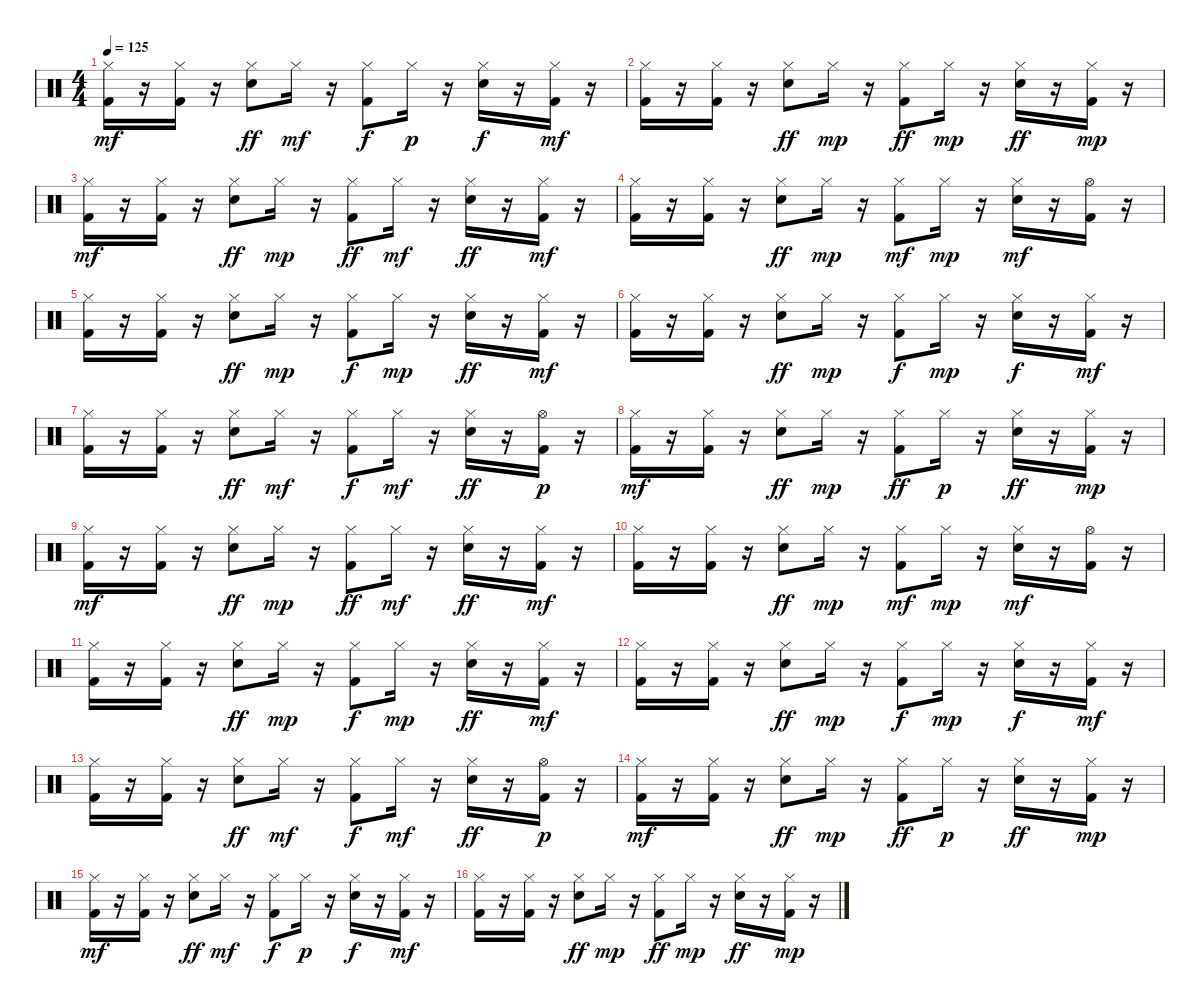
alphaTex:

\track "" {instrument percussion}
\staff {score}
\articulation defaults
\ts (4 4)
\tempo 125
\clef neutral
\ks c
("Hi-Hat (closed)" "Kick (hit) 2").16{dy mf} r.16 ("Hi-Hat (closed)" "Kick (hit) 2").16 r.16 ("Snare (hit) 2" "Hi-Hat (closed)").8{dy ff} "Hi-Hat (closed)".16{dy mf} r.16 ("Kick (hit) 2" "Hi-Hat (closed)").8{dy f} "Hi-Hat (closed)".16{dy p} r.16 ("Snare (hit) 2" "Hi-Hat (closed)").16{dy f} r.16 ("Hi-Hat (closed)" "Kick (hit) 2").16{dy mf} r.16 |
("Hi-Hat (closed)" "Kick (hit) 2").16 r.16 ("Hi-Hat (closed)" "Kick (hit) 2").16 r.16 ("Snare (hit) 2" "Hi-Hat (closed)").8{dy ff} "Hi-Hat (closed)".16{dy mp} r.16 ("Kick (hit) 2" "Hi-Hat (closed)").8{dy ff} "Hi-Hat (closed)".16{dy mp} r.16 ("Snare (hit) 2" "Hi-Hat (closed)").16{dy ff} r.16 ("Hi-Hat (closed)" "Kick (hit) 2").16{dy mp} r.16 |
("Hi-Hat (closed)" "Kick (hit) 2").16{dy mf} r.16 ("Hi-Hat (closed)" "Kick (hit) 2").16 r.16 ("Hi-Hat (closed)" "Snare (hit) 2").8{dy ff} "Hi-Hat (closed)".16{dy mp} r.16 ("Hi-Hat (closed)" "Kick (hit) 2").8{dy ff} "Hi-Hat (closed)".16{dy mf} r.16 ("Snare (hit) 2" "Hi-Hat (closed)").16{dy ff} r.16 ("Kick (hit) 2" "Hi-Hat (closed)").16{dy mf} r.16 |
("Hi-Hat (closed)" "Kick (hit) 2").16 r.16 ("Kick (hit) 2" "Hi-Hat (closed)").16 r.16 ("Hi-Hat (closed)" "Snare (hit) 2").8{dy ff} "Hi-Hat (closed)".16{dy mp} r.16 ("Kick (hit) 2" "Hi-Hat (closed)").8{dy mf} "Hi-Hat (closed)".16{dy mp} r.16 ("Snare (hit) 2" "Hi-Hat (closed)").16{dy mf} r.16 ("Hi-Hat (open)" "Kick (hit) 2").16 r.16 |
("Hi-Hat (closed)" "Kick (hit) 2").16 r.16 ("Hi-Hat (closed)" "Kick (hit) 2").16 r.16 ("Snare (hit) 2" "Hi-Hat (closed)").8{dy ff} "Hi-Hat (closed)".16{dy mp} r.16 ("Hi-Hat (closed)" "Kick (hit) 2").8{dy f} "Hi-Hat (closed)".16{dy mp} r.16 ("Hi-Hat (closed)" "Snare (hit) 2").16{dy ff} r.16 ("Hi-Hat (closed)" "Kick (hit) 2").16{dy mf} r.16 |
("Hi-Hat (closed)" "Kick (hit) 2").16 r.16 ("Hi-Hat (closed)" "Kick (hit) 2").16 r.16 ("Hi-Hat (closed)" "Snare (hit) 2").8{dy ff} "Hi-Hat (closed)".16{dy mp} r.16 ("Hi-Hat (closed)" "Kick (hit) 2").8{dy f} "Hi-Hat (closed)".16{dy mp} r.16 ("Snare (hit) 2" "Hi-Hat (closed)").16{dy f} r.16 ("Kick (hit) 2" "Hi-Hat (closed)").16{dy mf} r.16 |
("Hi-Hat (closed)" "Kick (hit) 2").16 r.16 ("Kick (hit) 2" "Hi-Hat (closed)").16 r.16 ("Snare (hit) 2" "Hi-Hat (closed)").8{dy ff} "Hi-Hat (closed)".16{dy mf} r.16 ("Kick (hit) 2" "Hi-Hat (closed)").8{dy f} "Hi-Hat (closed)".16{dy mf} r.16 ("Hi-Hat (closed)" "Snare (hit) 2").16{dy ff} r.16 ("Kick (hit) 2" "Hi-Hat (open)").16{dy p} r.16 |
("Hi-Hat (closed)" "Kick (hit) 2").16{dy mf} r.16 ("Kick (hit) 2" "Hi-Hat (closed)").16 r.16 ("Hi-Hat (closed)" "Snare (hit) 2").8{dy ff} "Hi-Hat (closed)".16{dy mp} r.16 ("Kick (hit) 2" "Hi-Hat (closed)").8{dy ff} "Hi-Hat (closed)".16{dy p} r.16 ("Hi-Hat (closed)" "Snare (hit) 2").16{dy ff} r.16 ("Hi-Hat (closed)" "Kick (hit) 2").16{dy mp} r.16 |
("Hi-Hat (closed)" "Kick (hit) 2").16{dy mf} r.16 ("Hi-Hat (closed)" "Kick (hit) 2").16 r.16 ("Hi-Hat (closed)" "Snare (hit) 2").8{dy ff} "Hi-Hat (closed)".16{dy mp} r.16 ("Hi-Hat (closed)" "Kick (hit) 2").8{dy ff} "Hi-Hat (closed)".16{dy mf} r.16 ("Snare (hit) 2" "Hi-Hat (closed)").16{dy ff} r.16 ("Kick (hit) 2" "Hi-Hat (closed)").16{dy mf} r.16 |
("Hi-Hat (closed)" "Kick (hit) 2").16 r.16 ("Kick (hit) 2" "Hi-Hat (closed)").16 r.16 ("Hi-Hat (closed)" "Snare (hit) 2").8{dy ff} "Hi-Hat (closed)".16{dy mp} r.16 ("Kick (hit) 2" "Hi-Hat (closed)").8{dy mf} "Hi-Hat (closed)".16{dy mp} r.16 ("Snare (hit) 2" "Hi-Hat (closed)").16{dy mf} r.16 ("Hi-Hat (open)" "Kick (hit) 2").16 r.16 |
("Hi-Hat (closed)" "Kick (hit) 2").16 r.16 ("Hi-Hat (closed)" "Kick (hit) 2").16 r.16 ("Snare (hit) 2" "Hi-Hat (closed)").8{dy ff} "Hi-Hat (closed)".16{dy mp} r.16 ("Hi-Hat (closed)" "Kick (hit) 2").8{dy f} "Hi-Hat (closed)".16{dy mp} r.16 ("Hi-Hat (closed)" "Snare (hit) 2").16{dy ff} r.16 ("Hi-Hat (closed)" "Kick (hit) 2").16{dy mf} r.16 |
("Hi-Hat (closed)" "Kick (hit) 2").16 r.16 ("Hi-Hat (closed)" "Kick (hit) 2").16 r.16 ("Hi-Hat (closed)" "Snare (hit) 2").8{dy ff} "Hi-Hat (closed)".16{dy mp} r.16 ("Hi-Hat (closed)" "Kick (hit) 2").8{dy f} "Hi-Hat (closed)".16{dy mp} r.16 ("Snare (hit) 2" "Hi-Hat (closed)").16{dy f} r.16 ("Kick (hit) 2" "Hi-Hat (closed)").16{dy mf} r.16 |
("Hi-Hat (closed)" "Kick (hit) 2").16 r.16 ("Kick (hit) 2" "Hi-Hat (closed)").16 r.16 ("Snare (hit) 2" "Hi-Hat (closed)").8{dy ff} "Hi-Hat (closed)".16{dy mf} r.16 ("Kick (hit) 2" "Hi-Hat (closed)").8{dy f} "Hi-Hat (closed)".16{dy mf} r.16 ("Hi-Hat (closed)" "Snare (hit) 2").16{dy ff} r.16 ("Kick (hit) 2" "Hi-Hat (open)").16{dy p} r.16 |
("Hi-Hat (closed)" "Kick (hit) 2").16{dy mf} r.16 ("Kick (hit) 2" "Hi-Hat (closed)").16 r.16 ("Hi-Hat (closed)" "Snare (hit) 2").8{dy ff} "Hi-Hat (closed)".16{dy mp} r.16 ("Kick (hit) 2" "Hi-Hat (closed)").8{dy ff} "Hi-Hat (closed)".16{dy p} r.16 ("Hi-Hat (closed)" "Snare (hit) 2").16{dy ff} r.16 ("Hi-Hat (closed)" "Kick (hit) 2").16{dy mp} r.16 |
("Hi-Hat (closed)" "Kick (hit) 2").16{dy mf} r.16 ("Hi-Hat (closed)" "Kick (hit) 2").16 r.16 ("Snare (hit) 2" "Hi-Hat (closed)").8{dy ff} "Hi-Hat (closed)".16{dy mf} r.16 ("Kick (hit) 2" "Hi-Hat (closed)").8{dy f} "Hi-Hat (closed)".16{dy p} r.16 ("Snare (hit) 2" "Hi-Hat (closed)").16{dy f} r.16 ("Hi-Hat (closed)" "Kick (hit) 2").16{dy mf} r.16 |
("Hi-Hat (closed)" "Kick (hit) 2").16 r.16 ("Hi-Hat (closed)" "Kick (hit) 2").16 r.16 ("Snare (hit) 2" "Hi-Hat (closed)").8{dy ff} "Hi-Hat (closed)".16{dy mp} r.16 ("Kick (hit) 2" "Hi-Hat (closed)").8{dy ff} "Hi-Hat (closed)".16{dy mp} r.16 ("Snare (hit) 2" "Hi-Hat (closed)").16{dy ff} r.16 ("Hi-Hat (closed)" "Kick (hit) 2").16{dy mp} r.16
